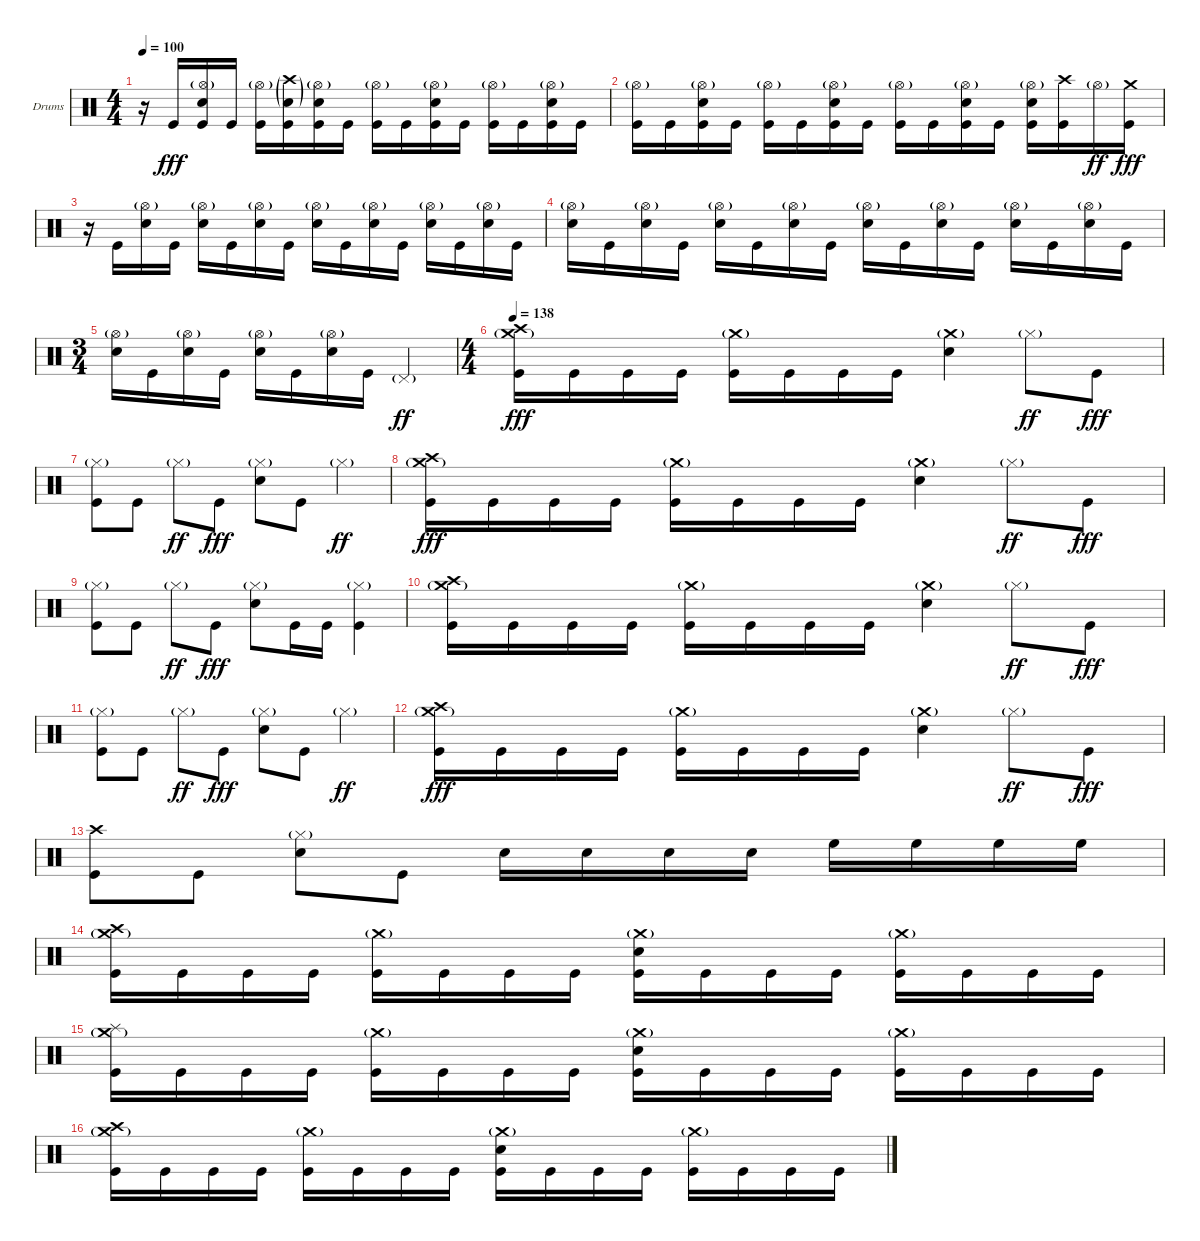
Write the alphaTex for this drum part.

\bracketExtendMode groupsimilarinstruments
\firstSystemTrackNameOrientation horizontal
\otherSystemsTrackNameOrientation horizontal
\track ("Drumkit" "Drums") {instrument percussion}
\staff {score}
\articulation defaults
\ts (4 4)
\tempo 100
\clef neutral
\ks c
r.16{dy fff} "Kick (hit)".16 ("Hi-Hat (open)"{g} "Snare (hit) 2" "Kick (hit)").16 "Kick (hit)".16 ("Hi-Hat (open)"{g} "Kick (hit)").16 ("Crash high (hit)"{g} "Snare (hit) 2"{g} "Kick (hit)").16 ("Hi-Hat (open)"{g} "Snare (hit) 2" "Kick (hit)").16 "Kick (hit)".16 ("Hi-Hat (open)"{g} "Kick (hit)").16 "Kick (hit)".16 ("Hi-Hat (open)"{g} "Snare (hit) 2" "Kick (hit)").16 "Kick (hit)".16 ("Hi-Hat (open)"{g} "Kick (hit)").16 "Kick (hit)".16 ("Hi-Hat (open)"{g} "Snare (hit) 2" "Kick (hit)").16 "Kick (hit)".16 |
("Hi-Hat (open)"{g} "Kick (hit)").16 "Kick (hit)".16 ("Hi-Hat (open)"{g} "Snare (hit) 2" "Kick (hit)").16 "Kick (hit)".16 ("Hi-Hat (open)"{g} "Kick (hit)").16 "Kick (hit)".16 ("Hi-Hat (open)"{g} "Snare (hit) 2" "Kick (hit)").16 "Kick (hit)".16 ("Hi-Hat (open)"{g} "Kick (hit)").16 "Kick (hit)".16 ("Hi-Hat (open)"{g} "Snare (hit) 2" "Kick (hit)").16 "Kick (hit)".16 ("Hi-Hat (open)"{g} "Snare (hit) 2" "Kick (hit)").16 ("Crash high (hit)" "Kick (hit)").16 "Hi-Hat (open)"{g}.16{dy ff} ("Crash medium (hit)" "Kick (hit)").16{dy fff} |
r.16 "Kick (hit)".16 ("Hi-Hat (open)"{g} "Snare (hit) 2").16 "Kick (hit)".16 ("Hi-Hat (open)"{g} "Snare (hit) 2").16 "Kick (hit)".16 ("Hi-Hat (open)"{g} "Snare (hit) 2").16 "Kick (hit)".16 ("Hi-Hat (open)"{g} "Snare (hit) 2").16 "Kick (hit)".16 ("Hi-Hat (open)"{g} "Snare (hit) 2").16 "Kick (hit)".16 ("Hi-Hat (open)"{g} "Snare (hit) 2").16 "Kick (hit)".16 ("Hi-Hat (open)"{g} "Snare (hit) 2").16 "Kick (hit)".16 |
("Hi-Hat (open)"{g} "Snare (hit) 2").16 "Kick (hit)".16 ("Hi-Hat (open)"{g} "Snare (hit) 2").16 "Kick (hit)".16 ("Hi-Hat (open)"{g} "Snare (hit) 2").16 "Kick (hit)".16 ("Hi-Hat (open)"{g} "Snare (hit) 2").16 "Kick (hit)".16 ("Hi-Hat (open)"{g} "Snare (hit) 2").16 "Kick (hit)".16 ("Hi-Hat (open)"{g} "Snare (hit) 2").16 "Kick (hit)".16 ("Hi-Hat (open)"{g} "Snare (hit) 2").16 "Kick (hit)".16 ("Hi-Hat (open)"{g} "Snare (hit) 2").16 "Kick (hit)".16 |
\ts (3 4)
\beaming (8 2 2 2)
("Hi-Hat (open)"{g} "Snare (hit) 2").16 "Kick (hit)".16 ("Hi-Hat (open)"{g} "Snare (hit) 2").16 "Kick (hit)".16 ("Hi-Hat (open)"{g} "Snare (hit) 2").16 "Kick (hit)".16 ("Hi-Hat (open)"{g} "Snare (hit) 2").16 "Kick (hit)".16 "Pedal Hi-Hat (hit)"{g}.4{dy ff} |
\ts (4 4)
\beaming (8 2 2 2 2)
\tempo 138
("Crash medium (hit)"{g} "Crash high (hit)" "Kick (hit)").16{dy fff} "Kick (hit)".16 "Kick (hit)".16 "Kick (hit)".16 ("Crash medium (hit)"{g} "Kick (hit)").16 "Kick (hit)".16 "Kick (hit)".16 "Kick (hit)".16 ("Crash medium (hit)"{g} "Snare (hit) 2").4 "Hi-Hat (closed)"{g}.8{dy ff} "Kick (hit)".8{dy fff} |
("Hi-Hat (closed)"{g} "Kick (hit)").8 "Kick (hit)".8 "Hi-Hat (closed)"{g}.8{dy ff} "Kick (hit)".8{dy fff} ("Hi-Hat (closed)"{g} "Snare (hit) 2").8 "Kick (hit)".8 "Hi-Hat (closed)"{g}.4{dy ff} |
("Crash medium (hit)"{g} "Crash high (hit)" "Kick (hit)").16{dy fff} "Kick (hit)".16 "Kick (hit)".16 "Kick (hit)".16 ("Crash medium (hit)"{g} "Kick (hit)").16 "Kick (hit)".16 "Kick (hit)".16 "Kick (hit)".16 ("Crash medium (hit)"{g} "Snare (hit) 2").4 "Hi-Hat (closed)"{g}.8{dy ff} "Kick (hit)".8{dy fff} |
("Hi-Hat (closed)"{g} "Kick (hit)").8 "Kick (hit)".8 "Hi-Hat (closed)"{g}.8{dy ff} "Kick (hit)".8{dy fff} ("Hi-Hat (closed)"{g} "Snare (hit) 2").8 "Kick (hit)".16 "Kick (hit)".16 ("Hi-Hat (closed)"{g} "Kick (hit)").4 |
("Crash medium (hit)"{g} "Crash high (hit)" "Kick (hit)").16 "Kick (hit)".16 "Kick (hit)".16 "Kick (hit)".16 ("Crash medium (hit)"{g} "Kick (hit)").16 "Kick (hit)".16 "Kick (hit)".16 "Kick (hit)".16 ("Crash medium (hit)"{g} "Snare (hit) 2").4 "Hi-Hat (closed)"{g}.8{dy ff} "Kick (hit)".8{dy fff} |
("Hi-Hat (closed)"{g} "Kick (hit)").8 "Kick (hit)".8 "Hi-Hat (closed)"{g}.8{dy ff} "Kick (hit)".8{dy fff} ("Hi-Hat (closed)"{g} "Snare (hit) 2").8 "Kick (hit)".8 "Hi-Hat (closed)"{g}.4{dy ff} |
("Crash medium (hit)"{g} "Crash high (hit)" "Kick (hit)").16{dy fff} "Kick (hit)".16 "Kick (hit)".16 "Kick (hit)".16 ("Crash medium (hit)"{g} "Kick (hit)").16 "Kick (hit)".16 "Kick (hit)".16 "Kick (hit)".16 ("Crash medium (hit)"{g} "Snare (hit) 2").4 "Hi-Hat (closed)"{g}.8{dy ff} "Kick (hit)".8{dy fff} |
("Crash high (hit)" "Kick (hit)").8 "Kick (hit)".8 ("Hi-Hat (closed)"{g} "Snare (hit) 2").8 "Kick (hit)".8 "Snare (hit) 2".16 "Snare (hit) 2".16 "Snare (hit) 2".16 "Snare (hit) 2".16 "High Floor Tom (hit)".16 "High Floor Tom (hit)".16 "High Floor Tom (hit)".16 "High Floor Tom (hit)".16 |
("Crash medium (hit)"{g} "Crash high (hit)" "Kick (hit)").16 "Kick (hit)".16 "Kick (hit)".16 "Kick (hit)".16 ("Crash medium (hit)"{g} "Kick (hit)").16 "Kick (hit)".16 "Kick (hit)".16 "Kick (hit)".16 ("Crash medium (hit)"{g} "Snare (hit) 2" "Kick (hit)").16 "Kick (hit)".16 "Kick (hit)".16 "Kick (hit)".16 ("Crash medium (hit)"{g} "Kick (hit)").16 "Kick (hit)".16 "Kick (hit)".16 "Kick (hit)".16 |
("Crash medium (hit)"{g} "Splash (hit)" "Kick (hit)").16 "Kick (hit)".16 "Kick (hit)".16 "Kick (hit)".16 ("Crash medium (hit)"{g} "Kick (hit)").16 "Kick (hit)".16 "Kick (hit)".16 "Kick (hit)".16 ("Crash medium (hit)"{g} "Snare (hit) 2" "Kick (hit)").16 "Kick (hit)".16 "Kick (hit)".16 "Kick (hit)".16 ("Crash medium (hit)"{g} "Kick (hit)").16 "Kick (hit)".16 "Kick (hit)".16 "Kick (hit)".16 |
("Crash medium (hit)"{g} "Crash high (hit)" "Kick (hit)").16 "Kick (hit)".16 "Kick (hit)".16 "Kick (hit)".16 ("Crash medium (hit)"{g} "Kick (hit)").16 "Kick (hit)".16 "Kick (hit)".16 "Kick (hit)".16 ("Crash medium (hit)"{g} "Snare (hit) 2" "Kick (hit)").16 "Kick (hit)".16 "Kick (hit)".16 "Kick (hit)".16 ("Crash medium (hit)"{g} "Kick (hit)").16 "Kick (hit)".16 "Kick (hit)".16 "Kick (hit)".16
